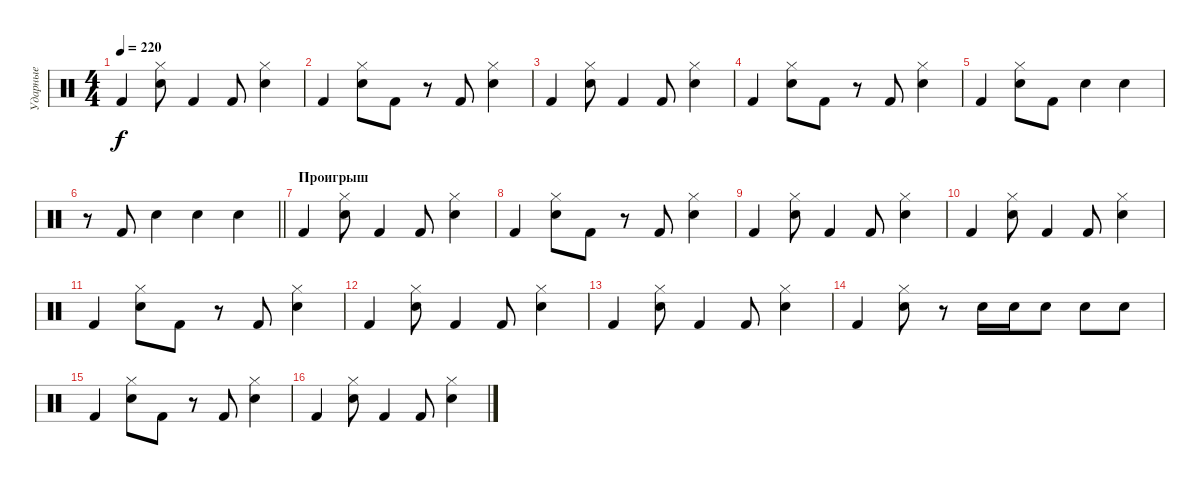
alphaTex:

\track ("Ударные" "Ударные") {instrument percussion}
\staff {score}
\articulation defaults
\ts (4 4)
\tempo 220
\clef neutral
\ks c "Kick (hit) 2".4{dy f}
("Hi-Hat (closed)" "Snare (hit) 2").8 "Kick (hit) 2".4 "Kick (hit) 2".8 ("Hi-Hat (closed)" "Snare (hit) 2").4 |
"Kick (hit) 2".4 ("Hi-Hat (closed)" "Snare (hit) 2").8 "Kick (hit) 2".8 r.8 "Kick (hit) 2".8 ("Hi-Hat (closed)" "Snare (hit) 2").4 |
"Kick (hit) 2".4 ("Hi-Hat (closed)" "Snare (hit) 2").8 "Kick (hit) 2".4 "Kick (hit) 2".8 ("Hi-Hat (closed)" "Snare (hit) 2").4 |
"Kick (hit) 2".4 ("Hi-Hat (closed)" "Snare (hit) 2").8 "Kick (hit) 2".8 r.8 "Kick (hit) 2".8 ("Hi-Hat (closed)" "Snare (hit) 2").4 |
"Kick (hit) 2".4 ("Hi-Hat (closed)" "Snare (hit) 2").8 "Kick (hit) 2".8 "Snare (hit) 2".4 "Snare (hit) 2".4 |
\barLineRight lightlight
r.8 "Kick (hit) 2".8 "Snare (hit) 2".4 "Snare (hit) 2".4 "Snare (hit) 2".4 |
\section ("" "Проигрыш")
"Kick (hit) 2".4 ("Hi-Hat (closed)" "Snare (hit) 2").8 "Kick (hit) 2".4 "Kick (hit) 2".8 ("Hi-Hat (closed)" "Snare (hit) 2").4 |
"Kick (hit) 2".4 ("Hi-Hat (closed)" "Snare (hit) 2").8 "Kick (hit) 2".8 r.8 "Kick (hit) 2".8 ("Hi-Hat (closed)" "Snare (hit) 2").4 |
"Kick (hit) 2".4 ("Hi-Hat (closed)" "Snare (hit) 2").8 "Kick (hit) 2".4 "Kick (hit) 2".8 ("Hi-Hat (closed)" "Snare (hit) 2").4 |
"Kick (hit) 2".4 ("Hi-Hat (closed)" "Snare (hit) 2").8 "Kick (hit) 2".4 "Kick (hit) 2".8 ("Hi-Hat (closed)" "Snare (hit) 2").4 |
"Kick (hit) 2".4 ("Hi-Hat (closed)" "Snare (hit) 2").8 "Kick (hit) 2".8 r.8 "Kick (hit) 2".8 ("Hi-Hat (closed)" "Snare (hit) 2").4 |
"Kick (hit) 2".4 ("Hi-Hat (closed)" "Snare (hit) 2").8 "Kick (hit) 2".4 "Kick (hit) 2".8 ("Hi-Hat (closed)" "Snare (hit) 2").4 |
"Kick (hit) 2".4 ("Hi-Hat (closed)" "Snare (hit) 2").8 "Kick (hit) 2".4 "Kick (hit) 2".8 ("Hi-Hat (closed)" "Snare (hit) 2").4 |
"Kick (hit) 2".4 ("Hi-Hat (closed)" "Snare (hit) 2").8 r.8 "Snare (hit) 2".16 "Snare (hit) 2".16 "Snare (hit) 2".8 "Snare (hit) 2".8 "Snare (hit) 2".8 |
"Kick (hit) 2".4 ("Hi-Hat (closed)" "Snare (hit) 2").8 "Kick (hit) 2".8 r.8 "Kick (hit) 2".8 ("Hi-Hat (closed)" "Snare (hit) 2").4 |
"Kick (hit) 2".4 ("Hi-Hat (closed)" "Snare (hit) 2").8 "Kick (hit) 2".4 "Kick (hit) 2".8 ("Hi-Hat (closed)" "Snare (hit) 2").4
